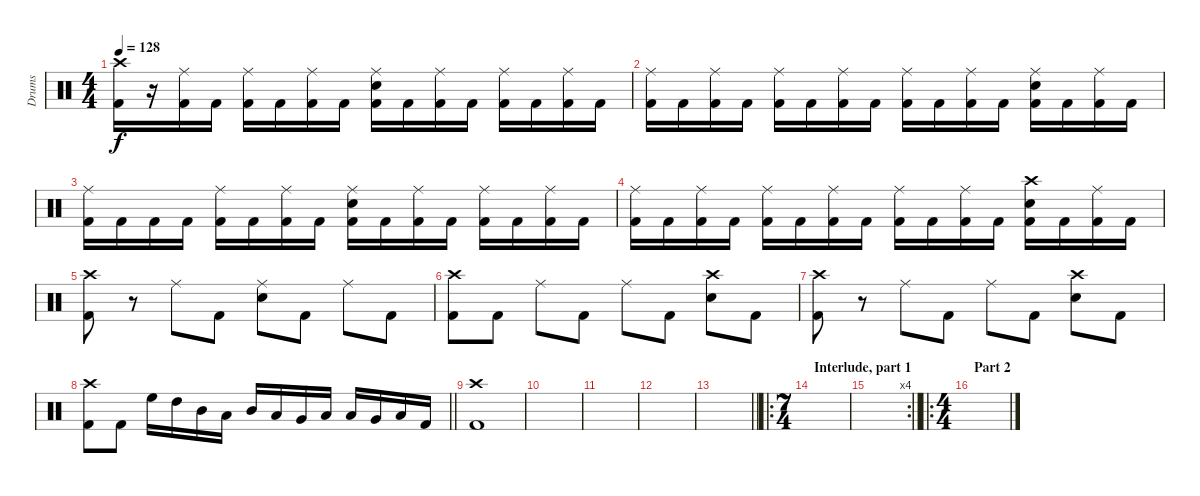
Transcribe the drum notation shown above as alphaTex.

\track ("Drums" "Drums") {instrument percussion}
\staff {score}
\articulation defaults
\ts (4 4)
\tempo 128
\clef neutral
\ks c
("Crash high (hit)" "Kick (hit) 2").16{dy f} r.16 ("Ride (middle)" "Kick (hit) 2").16 "Kick (hit) 2".16 ("Ride (middle)" "Kick (hit) 2").16 "Kick (hit) 2".16 ("Ride (middle)" "Kick (hit) 2").16 "Kick (hit) 2".16 ("Ride (middle)" "Electric Snare (hit)" "Kick (hit) 2").16 "Kick (hit) 2".16 ("Ride (middle)" "Kick (hit) 2").16 "Kick (hit) 2".16 ("Ride (middle)" "Kick (hit) 2").16 "Kick (hit) 2".16 ("Ride (middle)" "Kick (hit) 2").16 "Kick (hit) 2".16 |
("Ride (middle)" "Kick (hit) 2").16 "Kick (hit) 2".16 ("Ride (middle)" "Kick (hit) 2").16 "Kick (hit) 2".16 ("Ride (middle)" "Kick (hit) 2").16 "Kick (hit) 2".16 ("Ride (middle)" "Kick (hit) 2").16 "Kick (hit) 2".16 ("Ride (middle)" "Kick (hit) 2").16 "Kick (hit) 2".16 ("Ride (middle)" "Kick (hit) 2").16 "Kick (hit) 2".16 ("Ride (middle)" "Electric Snare (hit)" "Kick (hit) 2").16 "Kick (hit) 2".16 ("Ride (middle)" "Kick (hit) 2").16 "Kick (hit) 2".16 |
("Ride (middle)" "Kick (hit) 2").16 "Kick (hit) 2".16 "Kick (hit) 2".16 "Kick (hit) 2".16 ("Ride (middle)" "Kick (hit) 2").16 "Kick (hit) 2".16 ("Ride (middle)" "Kick (hit) 2").16 "Kick (hit) 2".16 ("Ride (middle)" "Electric Snare (hit)" "Kick (hit) 2").16 "Kick (hit) 2".16 ("Ride (middle)" "Kick (hit) 2").16 "Kick (hit) 2".16 ("Ride (middle)" "Kick (hit) 2").16 "Kick (hit) 2".16 ("Ride (middle)" "Kick (hit) 2").16 "Kick (hit) 2".16 |
("Ride (middle)" "Kick (hit) 2").16 "Kick (hit) 2".16 ("Ride (middle)" "Kick (hit) 2").16 "Kick (hit) 2".16 ("Ride (middle)" "Kick (hit) 2").16 "Kick (hit) 2".16 ("Ride (middle)" "Kick (hit) 2").16 "Kick (hit) 2".16 ("Ride (middle)" "Kick (hit) 2").16 "Kick (hit) 2".16 ("Ride (middle)" "Kick (hit) 2").16 "Kick (hit) 2".16 ("Crash high (hit)" "Electric Snare (hit)" "Kick (hit) 2").16 "Kick (hit) 2".16 ("Ride (middle)" "Kick (hit) 2").16 "Kick (hit) 2".16 |
("Crash high (hit)" "Kick (hit) 2").8 r.8 "Ride (middle)".8 "Kick (hit) 2".8 ("Ride (middle)" "Electric Snare (hit)").8 "Kick (hit) 2".8 "Ride (middle)".8 "Kick (hit) 2".8 |
("Crash high (hit)" "Kick (hit) 2").8 "Kick (hit) 2".8 "Ride (middle)".8 "Kick (hit) 2".8 "Ride (middle)".8 "Kick (hit) 2".8 ("Crash high (hit)" "Electric Snare (hit)").8 "Kick (hit) 2".8 |
("Crash high (hit)" "Kick (hit) 2").8 r.8 "Ride (middle)".8 "Kick (hit) 2".8 "Ride (middle)".8 "Kick (hit) 2".8 ("Crash high (hit)" "Electric Snare (hit)").8 "Kick (hit) 2".8 |
\barLineRight lightlight
("Crash high (hit)" "Kick (hit) 2").8 "Kick (hit) 2".8 "High Floor Tom (hit)".16 "High Tom (hit)".16 "Mid Tom (hit)".16 "Low Tom (hit)".16 "Mid Tom (hit)".16 "Low Tom (hit)".16 "Very Low Tom (hit)".16 "Low Floor Tom (hit)".16 "Low Tom (hit)".16 "Very Low Tom (hit)".16 "Low Floor Tom (hit)".16 "Kick (hit) 2".16 |
("Crash high (hit)" "Kick (hit) 2").1 |
|
|
|
\barLineRight lightlight
|
\ro
\ts (7 4)
\section ("" "Interlude, part 1")
|
\rc 4
\barLineRight lightlight
|
\ro
\ts (4 4)
\section ("" "Part 2")
